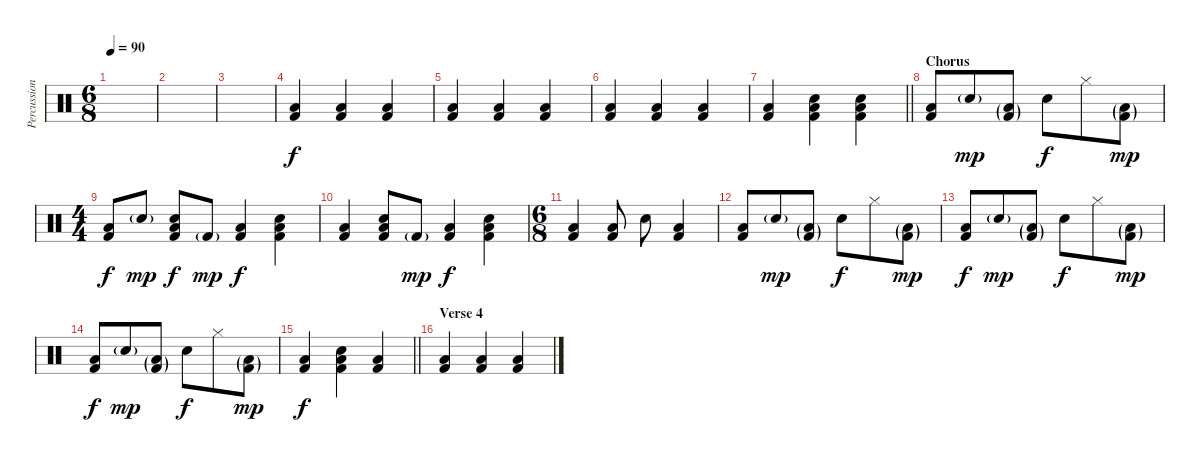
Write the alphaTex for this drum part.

\track ("Percussion" "Percussion") {instrument percussion}
\staff {score}
\articulation defaults
\ts (6 8)
\tempo 90
\clef neutral
\ks c
|
|
|
("Low Floor Tom (hit)" "Kick (hit) 2").4 ("Low Floor Tom (hit)" "Kick (hit) 2").4 ("Low Floor Tom (hit)" "Kick (hit) 2").4 |
("Low Floor Tom (hit)" "Kick (hit) 2").4 ("Low Floor Tom (hit)" "Kick (hit) 2").4 ("Low Floor Tom (hit)" "Kick (hit) 2").4 |
("Low Floor Tom (hit)" "Kick (hit) 2").4 ("Low Floor Tom (hit)" "Kick (hit) 2").4 ("Low Floor Tom (hit)" "Kick (hit) 2").4 |
\barLineRight lightlight
("Low Floor Tom (hit)" "Kick (hit) 2").4 ("Snare (hit) 2" "Low Floor Tom (hit)" "Kick (hit) 2").4 ("Snare (hit) 2" "Low Floor Tom (hit)" "Kick (hit) 2").4 |
\section ("" "Chorus")
("Low Floor Tom (hit)" "Kick (hit) 2").8 "Snare (hit) 2"{g}.8{dy mp} ("Low Floor Tom (hit)"{g} "Kick (hit) 2"{g}).8 "Snare (hit) 2".8{dy f} "Hi-Hat (closed)".8 ("Low Floor Tom (hit)"{g} "Kick (hit) 2"{g}).8{dy mp} |
\ts (4 4)
("Low Floor Tom (hit)" "Kick (hit) 2").8{dy f} "Snare (hit) 2"{g}.8{dy mp} ("Snare (hit) 2" "Low Floor Tom (hit)" "Kick (hit) 2").8{dy f} "Kick (hit) 2"{g}.8{dy mp} ("Low Floor Tom (hit)" "Kick (hit) 2").4{dy f} ("Snare (hit) 2" "Low Floor Tom (hit)" "Kick (hit) 2").4 |
("Low Floor Tom (hit)" "Kick (hit) 2").4 ("Snare (hit) 2" "Low Floor Tom (hit)" "Kick (hit) 2").8 "Kick (hit) 2"{g}.8{dy mp} ("Low Floor Tom (hit)" "Kick (hit) 2").4{dy f} ("Snare (hit) 2" "Low Floor Tom (hit)" "Kick (hit) 2").4 |
\ts (6 8)
("Low Floor Tom (hit)" "Kick (hit) 2").4 ("Low Floor Tom (hit)" "Kick (hit) 2").8 "Snare (hit) 2".8 ("Low Floor Tom (hit)" "Kick (hit) 2").4 |
("Low Floor Tom (hit)" "Kick (hit) 2").8 "Snare (hit) 2"{g}.8{dy mp} ("Low Floor Tom (hit)"{g} "Kick (hit) 2"{g}).8 "Snare (hit) 2".8{dy f} "Hi-Hat (closed)".8 ("Low Floor Tom (hit)"{g} "Kick (hit) 2"{g}).8{dy mp} |
("Low Floor Tom (hit)" "Kick (hit) 2").8{dy f} "Snare (hit) 2"{g}.8{dy mp} ("Low Floor Tom (hit)"{g} "Kick (hit) 2"{g}).8 "Snare (hit) 2".8{dy f} "Hi-Hat (closed)".8 ("Low Floor Tom (hit)"{g} "Kick (hit) 2"{g}).8{dy mp} |
("Low Floor Tom (hit)" "Kick (hit) 2").8{dy f} "Snare (hit) 2"{g}.8{dy mp} ("Low Floor Tom (hit)"{g} "Kick (hit) 2"{g}).8 "Snare (hit) 2".8{dy f} "Hi-Hat (closed)".8 ("Low Floor Tom (hit)"{g} "Kick (hit) 2"{g}).8{dy mp} |
\barLineRight lightlight
("Low Floor Tom (hit)" "Kick (hit) 2").4{dy f} ("Snare (hit) 2" "Low Floor Tom (hit)" "Kick (hit) 2").4 ("Low Floor Tom (hit)" "Kick (hit) 2").4 |
\section ("" "Verse 4")
("Low Floor Tom (hit)" "Kick (hit) 2").4 ("Low Floor Tom (hit)" "Kick (hit) 2").4 ("Low Floor Tom (hit)" "Kick (hit) 2").4
